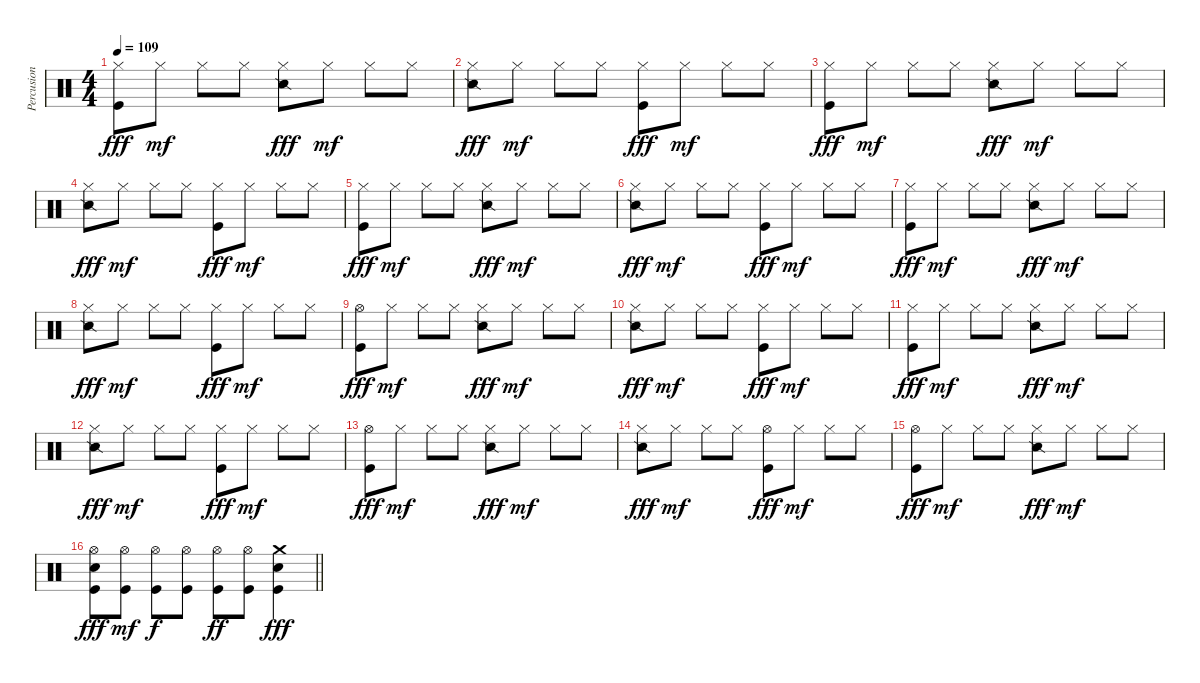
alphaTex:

\track ("Percusion" "Percusion") {instrument percussion}
\staff {score}
\articulation defaults
\ts (4 4)
\tempo 109
\clef neutral
\ks c
("Hi-Hat (closed)" "Kick (hit)").8{dy fff} "Hi-Hat (closed)".8{dy mf} "Hi-Hat (closed)".8 "Hi-Hat (closed)".8 ("Hi-Hat (closed)" "Snare (side stick) 2").8{dy fff} "Hi-Hat (closed)".8{dy mf} "Hi-Hat (closed)".8 "Hi-Hat (closed)".8 |
("Hi-Hat (closed)" "Snare (side stick) 2").8{dy fff} "Hi-Hat (closed)".8{dy mf} "Hi-Hat (closed)".8 "Hi-Hat (closed)".8 ("Hi-Hat (closed)" "Kick (hit)").8{dy fff} "Hi-Hat (closed)".8{dy mf} "Hi-Hat (closed)".8 "Hi-Hat (closed)".8 |
("Hi-Hat (closed)" "Kick (hit)").8{dy fff} "Hi-Hat (closed)".8{dy mf} "Hi-Hat (closed)".8 "Hi-Hat (closed)".8 ("Hi-Hat (closed)" "Snare (side stick) 2").8{dy fff} "Hi-Hat (closed)".8{dy mf} "Hi-Hat (closed)".8 "Hi-Hat (closed)".8 |
("Hi-Hat (closed)" "Snare (side stick) 2").8{dy fff} "Hi-Hat (closed)".8{dy mf} "Hi-Hat (closed)".8 "Hi-Hat (closed)".8 ("Hi-Hat (closed)" "Kick (hit)").8{dy fff} "Hi-Hat (closed)".8{dy mf} "Hi-Hat (closed)".8 "Hi-Hat (closed)".8 |
("Hi-Hat (closed)" "Kick (hit)").8{dy fff} "Hi-Hat (closed)".8{dy mf} "Hi-Hat (closed)".8 "Hi-Hat (closed)".8 ("Hi-Hat (closed)" "Snare (side stick) 2").8{dy fff} "Hi-Hat (closed)".8{dy mf} "Hi-Hat (closed)".8 "Hi-Hat (closed)".8 |
("Hi-Hat (closed)" "Snare (side stick) 2").8{dy fff} "Hi-Hat (closed)".8{dy mf} "Hi-Hat (closed)".8 "Hi-Hat (closed)".8 ("Hi-Hat (closed)" "Kick (hit)").8{dy fff} "Hi-Hat (closed)".8{dy mf} "Hi-Hat (closed)".8 "Hi-Hat (closed)".8 |
("Hi-Hat (closed)" "Kick (hit)").8{dy fff} "Hi-Hat (closed)".8{dy mf} "Hi-Hat (closed)".8 "Hi-Hat (closed)".8 ("Hi-Hat (closed)" "Snare (side stick) 2").8{dy fff} "Hi-Hat (closed)".8{dy mf} "Hi-Hat (closed)".8 "Hi-Hat (closed)".8 |
("Hi-Hat (closed)" "Snare (side stick) 2").8{dy fff} "Hi-Hat (closed)".8{dy mf} "Hi-Hat (closed)".8 "Hi-Hat (closed)".8 ("Hi-Hat (closed)" "Kick (hit)").8{dy fff} "Hi-Hat (closed)".8{dy mf} "Hi-Hat (closed)".8 "Hi-Hat (closed)".8 |
("Hi-Hat (open)" "Kick (hit)").8{dy fff} "Hi-Hat (closed)".8{dy mf} "Hi-Hat (closed)".8 "Hi-Hat (closed)".8 ("Hi-Hat (closed)" "Snare (side stick) 2").8{dy fff} "Hi-Hat (closed)".8{dy mf} "Hi-Hat (closed)".8 "Hi-Hat (closed)".8 |
("Hi-Hat (closed)" "Snare (side stick) 2").8{dy fff} "Hi-Hat (closed)".8{dy mf} "Hi-Hat (closed)".8 "Hi-Hat (closed)".8 ("Hi-Hat (closed)" "Kick (hit)").8{dy fff} "Hi-Hat (closed)".8{dy mf} "Hi-Hat (closed)".8 "Hi-Hat (closed)".8 |
("Hi-Hat (closed)" "Kick (hit)").8{dy fff} "Hi-Hat (closed)".8{dy mf} "Hi-Hat (closed)".8 "Hi-Hat (closed)".8 ("Hi-Hat (closed)" "Snare (side stick) 2").8{dy fff} "Hi-Hat (closed)".8{dy mf} "Hi-Hat (closed)".8 "Hi-Hat (closed)".8 |
("Hi-Hat (closed)" "Snare (side stick) 2").8{dy fff} "Hi-Hat (closed)".8{dy mf} "Hi-Hat (closed)".8 "Hi-Hat (closed)".8 ("Hi-Hat (closed)" "Kick (hit)").8{dy fff} "Hi-Hat (closed)".8{dy mf} "Hi-Hat (closed)".8 "Hi-Hat (closed)".8 |
("Hi-Hat (open)" "Kick (hit)").8{dy fff} "Hi-Hat (closed)".8{dy mf} "Hi-Hat (closed)".8 "Hi-Hat (closed)".8 ("Hi-Hat (closed)" "Snare (side stick) 2").8{dy fff} "Hi-Hat (closed)".8{dy mf} "Hi-Hat (closed)".8 "Hi-Hat (closed)".8 |
("Hi-Hat (closed)" "Snare (side stick) 2").8{dy fff} "Hi-Hat (closed)".8{dy mf} "Hi-Hat (closed)".8 "Hi-Hat (closed)".8 ("Hi-Hat (open)" "Kick (hit)").8{dy fff} "Hi-Hat (closed)".8{dy mf} "Hi-Hat (closed)".8 "Hi-Hat (closed)".8 |
("Hi-Hat (open)" "Kick (hit)").8{dy fff} "Hi-Hat (closed)".8{dy mf} "Hi-Hat (closed)".8 "Hi-Hat (closed)".8 ("Hi-Hat (closed)" "Snare (side stick) 2").8{dy fff} "Hi-Hat (closed)".8{dy mf} "Hi-Hat (closed)".8 "Hi-Hat (closed)".8 |
\barLineRight lightlight
("Hi-Hat (open)" "Electric Snare (hit)" "Kick (hit)").8{dy fff} ("Hi-Hat (open)" "Kick (hit)").8{dy mf} ("Hi-Hat (open)" "Kick (hit)").8{dy f} ("Hi-Hat (open)" "Kick (hit)").8 ("Hi-Hat (open)" "Kick (hit)").8{dy ff} ("Hi-Hat (open)" "Kick (hit)").8 ("Crash medium (hit)" "Electric Snare (hit)" "Kick (hit)").4{dy fff}
